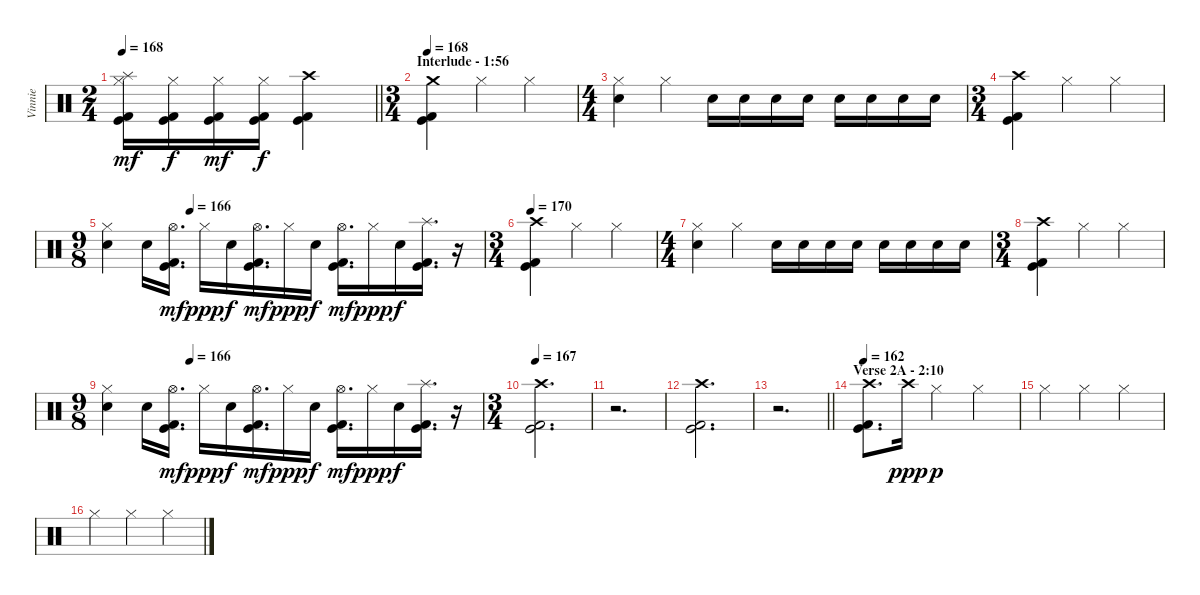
\track ("Vinnie" "Vinnie") {instrument percussion}
\staff {score}
\articulation defaults
\ts (2 4)
\tempo 168
\clef neutral
\barLineRight lightlight
\ks c
("Hi-Hat (closed)" "Splash (hit)" "Kick (hit)" "Kick (hit) 2").16{dy mf} ("Hi-Hat (closed)" "Kick (hit)" "Kick (hit) 2").16{dy f} ("Hi-Hat (closed)" "Kick (hit)" "Kick (hit) 2").16{dy mf} ("Hi-Hat (closed)" "Kick (hit)" "Kick (hit) 2").16{dy f} ("Crash high (hit)" "Kick (hit)" "Kick (hit) 2").4 |
\ts (3 4)
\section ("" "Interlude - 1:56")
\tempo 168
("Crash medium (hit)" "Kick (hit)" "Kick (hit) 2").4 "Hi-Hat (closed)".4 "Hi-Hat (closed)".4 |
\ts (4 4)
("Hi-Hat (closed)" "Electric Snare (hit)").4 "Hi-Hat (closed)".4 "Electric Snare (hit)".16 "Electric Snare (hit)".16 "Electric Snare (hit)".16 "Electric Snare (hit)".16 "Electric Snare (hit)".16 "Electric Snare (hit)".16 "Electric Snare (hit)".16 "Electric Snare (hit)".16 |
\ts (3 4)
("Crash high (hit)" "Kick (hit)" "Kick (hit) 2").4 "Hi-Hat (closed)".4 "Hi-Hat (closed)".4 |
\ts (9 8)
\tempo (166 0.2222222222222222)
("Hi-Hat (closed)" "Electric Snare (hit)").4 "Electric Snare (hit)".16 ("Hi-Hat (open)" "Kick (hit)" "Kick (hit) 2").16{d dy mf} "Hi-Hat (closed)".16{dy ppp} "Electric Snare (hit)".16{dy f} ("Hi-Hat (open)" "Kick (hit)" "Kick (hit) 2").16{d dy mf} "Hi-Hat (closed)".16{dy ppp} "Electric Snare (hit)".16{dy f} ("Hi-Hat (open)" "Kick (hit)" "Kick (hit) 2").16{d dy mf} "Hi-Hat (closed)".16{dy ppp} "Electric Snare (hit)".16{dy f} ("Splash (hit)" "Kick (hit)" "Kick (hit) 2").16{d} r.16 |
\ts (3 4)
\tempo 170
("Crash high (hit)" "Kick (hit)" "Kick (hit) 2").4 "Hi-Hat (closed)".4 "Hi-Hat (closed)".4 |
\ts (4 4)
("Hi-Hat (closed)" "Electric Snare (hit)").4 "Hi-Hat (closed)".4 "Electric Snare (hit)".16 "Electric Snare (hit)".16 "Electric Snare (hit)".16 "Electric Snare (hit)".16 "Electric Snare (hit)".16 "Electric Snare (hit)".16 "Electric Snare (hit)".16 "Electric Snare (hit)".16 |
\ts (3 4)
("Crash high (hit)" "Kick (hit)" "Kick (hit) 2").4 "Hi-Hat (closed)".4 "Hi-Hat (closed)".4 |
\ts (9 8)
\tempo (166 0.2222222222222222)
("Hi-Hat (closed)" "Electric Snare (hit)").4 "Electric Snare (hit)".16 ("Hi-Hat (open)" "Kick (hit)" "Kick (hit) 2").16{d dy mf} "Hi-Hat (closed)".16{dy ppp} "Electric Snare (hit)".16{dy f} ("Hi-Hat (open)" "Kick (hit)" "Kick (hit) 2").16{d dy mf} "Hi-Hat (closed)".16{dy ppp} "Electric Snare (hit)".16{dy f} ("Hi-Hat (open)" "Kick (hit)" "Kick (hit) 2").16{d dy mf} "Hi-Hat (closed)".16{dy ppp} "Electric Snare (hit)".16{dy f} ("Splash (hit)" "Kick (hit)" "Kick (hit) 2").16{d} r.16 |
\ts (3 4)
\tempo 167
("Crash high (hit)" "Kick (hit)" "Kick (hit) 2").2{d} |
r.2{d} |
("Crash high (hit)" "Kick (hit)" "Kick (hit) 2").2{d} |
\barLineRight lightlight
r.2{d} |
\section ("" "Verse 2A - 2:10")
\tempo 162
("Crash high (hit)" "Kick (hit)" "Kick (hit) 2").8{d} "Crash high (hit)".16{dy ppp} "Hi-Hat (closed)".4{dy p} "Hi-Hat (closed)".4 |
"Hi-Hat (closed)".4 "Hi-Hat (closed)".4 "Hi-Hat (closed)".4 |
"Hi-Hat (closed)".4 "Hi-Hat (closed)".4 "Hi-Hat (closed)".4
